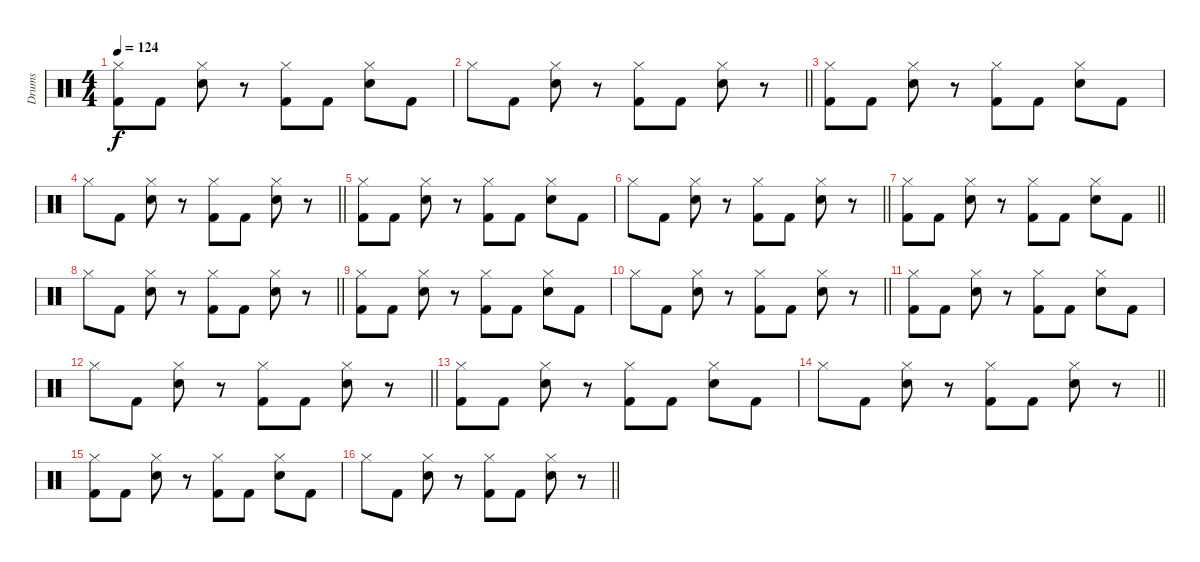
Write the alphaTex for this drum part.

\track ("Drums" "Drums") {instrument percussion}
\staff {score}
\articulation defaults
\ts (4 4)
\tempo 124
\clef neutral
\ks c
("Hi-Hat (closed)" "Kick (hit) 2").8{dy f} "Kick (hit) 2".8 ("Hi-Hat (closed)" "Snare (hit) 2").8 r.8 ("Hi-Hat (closed)" "Kick (hit) 2").8 "Kick (hit) 2".8 ("Hi-Hat (closed)" "Snare (hit) 2").8 "Kick (hit) 2".8 |
\barLineRight lightlight "Hi-Hat (closed)".8 "Kick (hit) 2".8
("Hi-Hat (closed)" "Snare (hit) 2").8 r.8 ("Hi-Hat (closed)" "Kick (hit) 2").8 "Kick (hit) 2".8 ("Hi-Hat (closed)" "Snare (hit) 2").8 r.8 |
("Hi-Hat (closed)" "Kick (hit) 2").8 "Kick (hit) 2".8 ("Hi-Hat (closed)" "Snare (hit) 2").8 r.8 ("Hi-Hat (closed)" "Kick (hit) 2").8 "Kick (hit) 2".8 ("Hi-Hat (closed)" "Snare (hit) 2").8 "Kick (hit) 2".8 |
\barLineRight lightlight "Hi-Hat (closed)".8 "Kick (hit) 2".8
("Hi-Hat (closed)" "Snare (hit) 2").8 r.8 ("Hi-Hat (closed)" "Kick (hit) 2").8 "Kick (hit) 2".8 ("Hi-Hat (closed)" "Snare (hit) 2").8 r.8 |
("Hi-Hat (closed)" "Kick (hit) 2").8 "Kick (hit) 2".8 ("Hi-Hat (closed)" "Snare (hit) 2").8 r.8 ("Hi-Hat (closed)" "Kick (hit) 2").8 "Kick (hit) 2".8 ("Hi-Hat (closed)" "Snare (hit) 2").8 "Kick (hit) 2".8 |
\barLineRight lightlight "Hi-Hat (closed)".8 "Kick (hit) 2".8
("Hi-Hat (closed)" "Snare (hit) 2").8 r.8 ("Hi-Hat (closed)" "Kick (hit) 2").8 "Kick (hit) 2".8 ("Hi-Hat (closed)" "Snare (hit) 2").8 r.8 |
\barLineRight lightlight
("Hi-Hat (closed)" "Kick (hit) 2").8 "Kick (hit) 2".8 ("Hi-Hat (closed)" "Snare (hit) 2").8 r.8 ("Hi-Hat (closed)" "Kick (hit) 2").8 "Kick (hit) 2".8 ("Hi-Hat (closed)" "Snare (hit) 2").8 "Kick (hit) 2".8 |
\barLineRight lightlight "Hi-Hat (closed)".8 "Kick (hit) 2".8
("Hi-Hat (closed)" "Snare (hit) 2").8 r.8 ("Hi-Hat (closed)" "Kick (hit) 2").8 "Kick (hit) 2".8 ("Hi-Hat (closed)" "Snare (hit) 2").8 r.8 |
("Hi-Hat (closed)" "Kick (hit) 2").8 "Kick (hit) 2".8 ("Hi-Hat (closed)" "Snare (hit) 2").8 r.8 ("Hi-Hat (closed)" "Kick (hit) 2").8 "Kick (hit) 2".8 ("Hi-Hat (closed)" "Snare (hit) 2").8 "Kick (hit) 2".8 |
\barLineRight lightlight "Hi-Hat (closed)".8 "Kick (hit) 2".8
("Hi-Hat (closed)" "Snare (hit) 2").8 r.8 ("Hi-Hat (closed)" "Kick (hit) 2").8 "Kick (hit) 2".8 ("Hi-Hat (closed)" "Snare (hit) 2").8 r.8 |
("Hi-Hat (closed)" "Kick (hit) 2").8 "Kick (hit) 2".8 ("Hi-Hat (closed)" "Snare (hit) 2").8 r.8 ("Hi-Hat (closed)" "Kick (hit) 2").8 "Kick (hit) 2".8 ("Hi-Hat (closed)" "Snare (hit) 2").8 "Kick (hit) 2".8 |
\barLineRight lightlight "Hi-Hat (closed)".8 "Kick (hit) 2".8
("Hi-Hat (closed)" "Snare (hit) 2").8 r.8 ("Hi-Hat (closed)" "Kick (hit) 2").8 "Kick (hit) 2".8 ("Hi-Hat (closed)" "Snare (hit) 2").8 r.8 |
("Hi-Hat (closed)" "Kick (hit) 2").8 "Kick (hit) 2".8 ("Hi-Hat (closed)" "Snare (hit) 2").8 r.8 ("Hi-Hat (closed)" "Kick (hit) 2").8 "Kick (hit) 2".8 ("Hi-Hat (closed)" "Snare (hit) 2").8 "Kick (hit) 2".8 |
\barLineRight lightlight "Hi-Hat (closed)".8 "Kick (hit) 2".8
("Hi-Hat (closed)" "Snare (hit) 2").8 r.8 ("Hi-Hat (closed)" "Kick (hit) 2").8 "Kick (hit) 2".8 ("Hi-Hat (closed)" "Snare (hit) 2").8 r.8 |
("Hi-Hat (closed)" "Kick (hit) 2").8 "Kick (hit) 2".8 ("Hi-Hat (closed)" "Snare (hit) 2").8 r.8 ("Hi-Hat (closed)" "Kick (hit) 2").8 "Kick (hit) 2".8 ("Hi-Hat (closed)" "Snare (hit) 2").8 "Kick (hit) 2".8 |
\barLineRight lightlight "Hi-Hat (closed)".8 "Kick (hit) 2".8
("Hi-Hat (closed)" "Snare (hit) 2").8 r.8 ("Hi-Hat (closed)" "Kick (hit) 2").8 "Kick (hit) 2".8 ("Hi-Hat (closed)" "Snare (hit) 2").8 r.8
